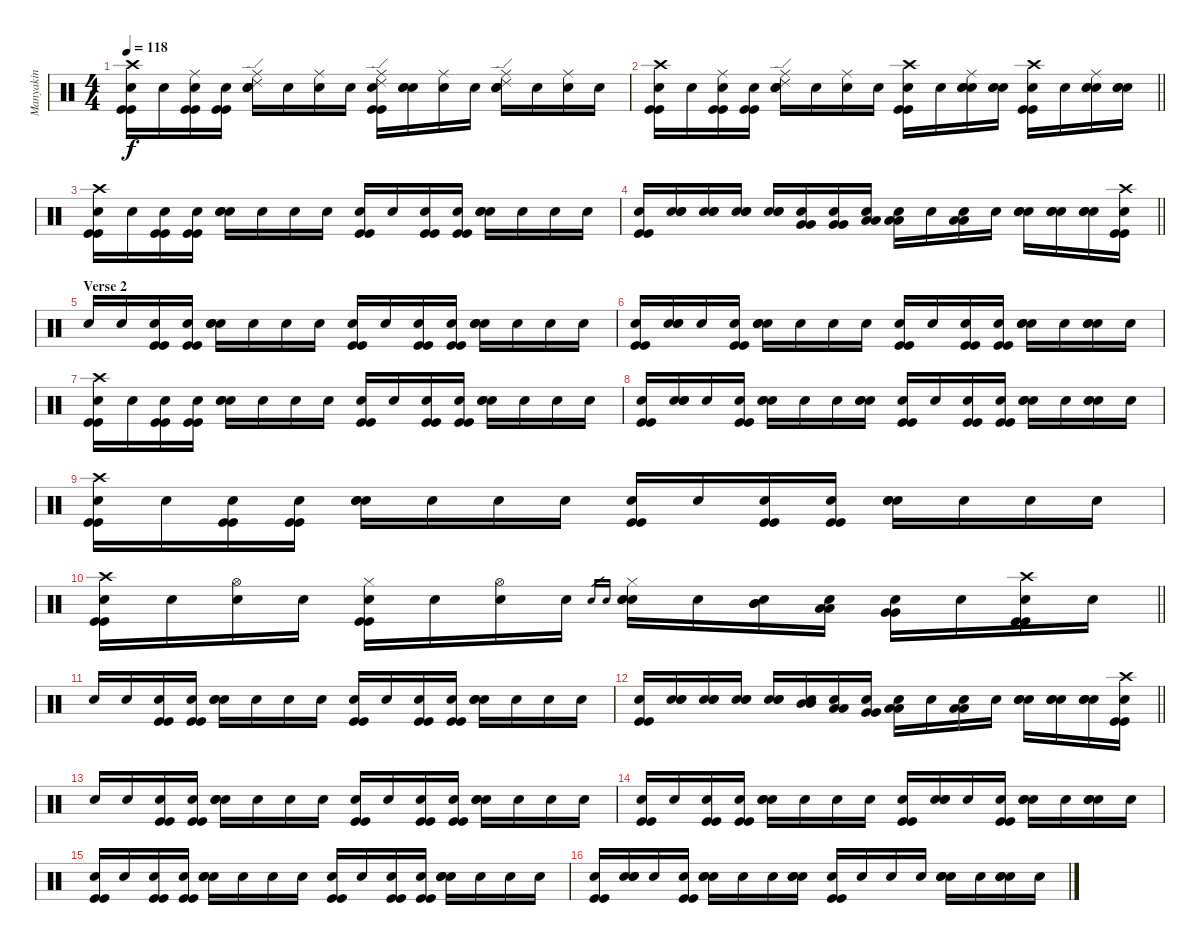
\track ("Manyakin" "Manyakin") {instrument percussion}
\staff {score}
\articulation defaults
\ts (4 4)
\tempo 118
\clef neutral
\ks c
("Crash high (hit)" "Kick (hit)" "Kick (hit)" "Snare (hit)"{x}).16{dy f} "Snare (hit)"{x}.16 ("Ride (middle)" "Kick (hit)" "Kick (hit)" "Snare (hit)"{x}).16 ("Kick (hit)" "Kick (hit)" "Snare (hit)"{x}).16 ("Ride (middle)" "Ride (edge) 2" "Electric Snare (hit)" "Electric Snare (hit)" "Snare (hit)"{x}).16 "Snare (hit)"{x}.16 ("Ride (middle)" "Snare (hit)"{x}).16 "Snare (hit)"{x}.16 ("Ride (middle)" "Ride (edge) 2" "Kick (hit)" "Kick (hit)" "Snare (hit)"{x}).16 ("Electric Snare (hit)" "Electric Snare (hit)" "Snare (hit)"{x}).16 ("Ride (middle)" "Snare (hit)"{x}).16 "Snare (hit)"{x}.16 ("Ride (middle)" "Ride (edge) 2" "Electric Snare (hit)" "Electric Snare (hit)" "Snare (hit)"{x}).16 "Snare (hit)"{x}.16 ("Ride (middle)" "Snare (hit)"{x}).16 "Snare (hit)"{x}.16 |
\barLineRight lightlight
("Crash high (hit)" "Kick (hit)" "Kick (hit)" "Snare (hit)"{x}).16 "Snare (hit)"{x}.16 ("Ride (middle)" "Kick (hit)" "Kick (hit)" "Snare (hit)"{x}).16 ("Kick (hit)" "Kick (hit)" "Snare (hit)"{x}).16 ("Ride (middle)" "Ride (edge) 2" "Electric Snare (hit)" "Electric Snare (hit)" "Snare (hit)"{x}).16 "Snare (hit)"{x}.16 ("Ride (middle)" "Snare (hit)"{x}).16 "Snare (hit)"{x}.16 ("Crash high (hit)" "Kick (hit)" "Kick (hit)" "Snare (hit)"{x}).16 "Snare (hit)"{x}.16 ("Ride (middle)" "Electric Snare (hit)" "Electric Snare (hit)" "Snare (hit)"{x}).16 ("Electric Snare (hit)" "Electric Snare (hit)" "Snare (hit)"{x}).16 ("Crash high (hit)" "Kick (hit)" "Kick (hit)" "Snare (hit)"{x}).16 "Snare (hit)"{x}.16 ("Ride (middle)" "Electric Snare (hit)" "Electric Snare (hit)" "Snare (hit)"{x}).16 ("Electric Snare (hit)" "Electric Snare (hit)" "Snare (hit)"{x}).16 |
("Crash high (hit)" "Kick (hit)" "Kick (hit)" "Snare (hit)"{x}).16 "Snare (hit)"{x}.16 ("Kick (hit)" "Kick (hit)" "Snare (hit)"{x}).16 ("Kick (hit)" "Kick (hit)" "Snare (hit)"{x}).16 ("Electric Snare (hit)" "Electric Snare (hit)" "Snare (hit)"{x}).16 "Snare (hit)"{x}.16 "Snare (hit)"{x}.16 "Snare (hit)"{x}.16 ("Kick (hit)" "Kick (hit)" "Snare (hit)"{x}).16 "Snare (hit)"{x}.16 ("Kick (hit)" "Kick (hit)" "Snare (hit)"{x}).16 ("Kick (hit)" "Kick (hit)" "Snare (hit)"{x}).16 ("Electric Snare (hit)" "Electric Snare (hit)" "Snare (hit)"{x}).16 "Snare (hit)"{x}.16 "Snare (hit)"{x}.16 "Snare (hit)"{x}.16 |
\barLineRight lightlight
("Kick (hit)" "Kick (hit)" "Snare (hit)"{x}).16 ("Electric Snare (hit)" "Electric Snare (hit)" "Snare (hit)"{x}).16 ("Electric Snare (hit)" "Electric Snare (hit)" "Snare (hit)"{x}).16 ("Electric Snare (hit)" "Electric Snare (hit)" "Snare (hit)"{x}).16 ("Electric Snare (hit)" "Electric Snare (hit)" "Snare (hit)"{x}).16 ("Very Low Tom (hit)" "Very Low Tom (hit)" "Snare (hit)"{x}).16 ("Very Low Tom (hit)" "Very Low Tom (hit)" "Snare (hit)"{x}).16 ("Low Floor Tom (hit)" "Low Floor Tom (hit)" "Snare (hit)"{x}).16 ("Low Floor Tom (hit)" "Low Floor Tom (hit)" "Snare (hit)"{x}).16 "Snare (hit)"{x}.16 ("Low Floor Tom (hit)" "Low Floor Tom (hit)" "Snare (hit)"{x}).16 "Snare (hit)"{x}.16 ("Electric Snare (hit)" "Electric Snare (hit)" "Snare (hit)"{x}).16 ("Electric Snare (hit)" "Electric Snare (hit)" "Snare (hit)"{x}).16 ("Electric Snare (hit)" "Electric Snare (hit)" "Snare (hit)"{x}).16 ("Crash high (hit)" "Kick (hit)" "Kick (hit)" "Snare (hit)"{x}).16 |
\section ("" "Verse 2")
"Snare (hit)"{x}.16 "Snare (hit)"{x}.16 ("Kick (hit)" "Kick (hit)" "Snare (hit)"{x}).16 ("Kick (hit)" "Kick (hit)" "Snare (hit)"{x}).16 ("Electric Snare (hit)" "Electric Snare (hit)" "Snare (hit)"{x}).16 "Snare (hit)"{x}.16 "Snare (hit)"{x}.16 "Snare (hit)"{x}.16 ("Kick (hit)" "Kick (hit)" "Snare (hit)"{x}).16 "Snare (hit)"{x}.16 ("Kick (hit)" "Kick (hit)" "Snare (hit)"{x}).16 ("Kick (hit)" "Kick (hit)" "Snare (hit)"{x}).16 ("Electric Snare (hit)" "Electric Snare (hit)" "Snare (hit)"{x}).16 "Snare (hit)"{x}.16 "Snare (hit)"{x}.16 "Snare (hit)"{x}.16 |
("Kick (hit)" "Kick (hit)" "Snare (hit)"{x}).16 ("Electric Snare (hit)" "Electric Snare (hit)" "Snare (hit)"{x}).16 "Snare (hit)"{x}.16 ("Kick (hit)" "Kick (hit)" "Snare (hit)"{x}).16 ("Electric Snare (hit)" "Electric Snare (hit)" "Snare (hit)"{x}).16 "Snare (hit)"{x}.16 "Snare (hit)"{x}.16 "Snare (hit)"{x}.16 ("Kick (hit)" "Kick (hit)" "Snare (hit)"{x}).16 "Snare (hit)"{x}.16 ("Kick (hit)" "Kick (hit)" "Snare (hit)"{x}).16 ("Kick (hit)" "Kick (hit)" "Snare (hit)"{x}).16 ("Electric Snare (hit)" "Electric Snare (hit)" "Snare (hit)"{x}).16 "Snare (hit)"{x}.16 ("Electric Snare (hit)" "Electric Snare (hit)" "Snare (hit)"{x}).16 "Snare (hit)"{x}.16 |
("Crash high (hit)" "Kick (hit)" "Kick (hit)" "Snare (hit)"{x}).16 "Snare (hit)"{x}.16 ("Kick (hit)" "Kick (hit)" "Snare (hit)"{x}).16 ("Kick (hit)" "Kick (hit)" "Snare (hit)"{x}).16 ("Electric Snare (hit)" "Electric Snare (hit)" "Snare (hit)"{x}).16 "Snare (hit)"{x}.16 "Snare (hit)"{x}.16 "Snare (hit)"{x}.16 ("Kick (hit)" "Kick (hit)" "Snare (hit)"{x}).16 "Snare (hit)"{x}.16 ("Kick (hit)" "Kick (hit)" "Snare (hit)"{x}).16 ("Kick (hit)" "Kick (hit)" "Snare (hit)"{x}).16 ("Electric Snare (hit)" "Electric Snare (hit)" "Snare (hit)"{x}).16 "Snare (hit)"{x}.16 "Snare (hit)"{x}.16 "Snare (hit)"{x}.16 |
("Kick (hit)" "Kick (hit)" "Snare (hit)"{x}).16 ("Electric Snare (hit)" "Electric Snare (hit)" "Snare (hit)"{x}).16 "Snare (hit)"{x}.16 ("Kick (hit)" "Kick (hit)" "Snare (hit)"{x}).16 ("Electric Snare (hit)" "Electric Snare (hit)" "Snare (hit)"{x}).16 "Snare (hit)"{x}.16 "Snare (hit)"{x}.16 ("Electric Snare (hit)" "Electric Snare (hit)" "Snare (hit)"{x}).16 ("Kick (hit)" "Kick (hit)" "Snare (hit)"{x}).16 "Snare (hit)"{x}.16 ("Kick (hit)" "Kick (hit)" "Snare (hit)"{x}).16 ("Kick (hit)" "Kick (hit)" "Snare (hit)"{x}).16 ("Electric Snare (hit)" "Electric Snare (hit)" "Snare (hit)"{x}).16 "Snare (hit)"{x}.16 ("Electric Snare (hit)" "Electric Snare (hit)" "Snare (hit)"{x}).16 "Snare (hit)"{x}.16 |
("Crash high (hit)" "Kick (hit)" "Kick (hit)" "Snare (hit)"{x}).16 "Snare (hit)"{x}.16 ("Kick (hit)" "Kick (hit)" "Snare (hit)"{x}).16 ("Kick (hit)" "Kick (hit)" "Snare (hit)"{x}).16 ("Electric Snare (hit)" "Electric Snare (hit)" "Snare (hit)"{x}).16 "Snare (hit)"{x}.16 "Snare (hit)"{x}.16 "Snare (hit)"{x}.16 ("Kick (hit)" "Kick (hit)" "Snare (hit)"{x}).16 "Snare (hit)"{x}.16 ("Kick (hit)" "Kick (hit)" "Snare (hit)"{x}).16 ("Kick (hit)" "Kick (hit)" "Snare (hit)"{x}).16 ("Electric Snare (hit)" "Electric Snare (hit)" "Snare (hit)"{x}).16 "Snare (hit)"{x}.16 "Snare (hit)"{x}.16 "Snare (hit)"{x}.16 |
\barLineRight lightlight
("Crash high (hit)" "Kick (hit)" "Kick (hit)" "Snare (hit)"{x}).16 "Snare (hit)"{x}.16 ("Hi-Hat (open)" "Snare (hit)"{x}).16 "Snare (hit)"{x}.16 ("Hi-Hat (closed)" "Kick (hit)" "Kick (hit)" "Snare (hit)"{x}).16 "Snare (hit)"{x}.16 ("Hi-Hat (open)" "Snare (hit)"{x}).16 "Snare (hit)"{x}.16 "Electric Snare (hit)".16{gr} "Electric Snare (hit)".16{gr} ("Hi-Hat (closed)" "Electric Snare (hit)" "Electric Snare (hit)" "Snare (hit)"{x}).16 "Snare (hit)"{x}.16 ("Mid Tom (hit)" "Mid Tom (hit)" "Snare (hit)"{x}).16 ("Low Tom (hit)" "Low Tom (hit)" "Snare (hit)"{x}).16 ("Very Low Tom (hit)" "Very Low Tom (hit)" "Snare (hit)"{x}).16 "Snare (hit)"{x}.16 ("Crash high (hit)" "Kick (hit)" "Kick (hit)" "Snare (hit)"{x}).16 "Snare (hit)"{x}.16 |
"Snare (hit)"{x}.16 "Snare (hit)"{x}.16 ("Kick (hit)" "Kick (hit)" "Snare (hit)"{x}).16 ("Kick (hit)" "Kick (hit)" "Snare (hit)"{x}).16 ("Electric Snare (hit)" "Electric Snare (hit)" "Snare (hit)"{x}).16 "Snare (hit)"{x}.16 "Snare (hit)"{x}.16 "Snare (hit)"{x}.16 ("Kick (hit)" "Kick (hit)" "Snare (hit)"{x}).16 "Snare (hit)"{x}.16 ("Kick (hit)" "Kick (hit)" "Snare (hit)"{x}).16 ("Kick (hit)" "Kick (hit)" "Snare (hit)"{x}).16 ("Electric Snare (hit)" "Electric Snare (hit)" "Snare (hit)"{x}).16 "Snare (hit)"{x}.16 "Snare (hit)"{x}.16 "Snare (hit)"{x}.16 |
\barLineRight lightlight
("Kick (hit)" "Kick (hit)" "Snare (hit)"{x}).16 ("Electric Snare (hit)" "Electric Snare (hit)" "Snare (hit)"{x}).16 ("Electric Snare (hit)" "Electric Snare (hit)" "Snare (hit)"{x}).16 ("Electric Snare (hit)" "Electric Snare (hit)" "Snare (hit)"{x}).16 ("Electric Snare (hit)" "Electric Snare (hit)" "Snare (hit)"{x}).16 ("Mid Tom (hit)" "Mid Tom (hit)" "Snare (hit)"{x}).16 ("Low Tom (hit)" "Low Tom (hit)" "Snare (hit)"{x}).16 ("Very Low Tom (hit)" "Very Low Tom (hit)" "Snare (hit)"{x}).16 ("Low Floor Tom (hit)" "Low Floor Tom (hit)" "Snare (hit)"{x}).16 "Snare (hit)"{x}.16 ("Low Floor Tom (hit)" "Low Floor Tom (hit)" "Snare (hit)"{x}).16 "Snare (hit)"{x}.16 ("Electric Snare (hit)" "Electric Snare (hit)" "Snare (hit)"{x}).16 ("Electric Snare (hit)" "Electric Snare (hit)" "Snare (hit)"{x}).16 ("Electric Snare (hit)" "Electric Snare (hit)" "Snare (hit)"{x}).16 ("Crash high (hit)" "Kick (hit)" "Kick (hit)" "Snare (hit)"{x}).16 |
"Snare (hit)"{x}.16 "Snare (hit)"{x}.16 ("Kick (hit)" "Kick (hit)" "Snare (hit)"{x}).16 ("Kick (hit)" "Kick (hit)" "Snare (hit)"{x}).16 ("Electric Snare (hit)" "Electric Snare (hit)" "Snare (hit)"{x}).16 "Snare (hit)"{x}.16 "Snare (hit)"{x}.16 "Snare (hit)"{x}.16 ("Kick (hit)" "Kick (hit)" "Snare (hit)"{x}).16 "Snare (hit)"{x}.16 ("Kick (hit)" "Kick (hit)" "Snare (hit)"{x}).16 ("Kick (hit)" "Kick (hit)" "Snare (hit)"{x}).16 ("Electric Snare (hit)" "Electric Snare (hit)" "Snare (hit)"{x}).16 "Snare (hit)"{x}.16 "Snare (hit)"{x}.16 "Snare (hit)"{x}.16 |
("Kick (hit)" "Kick (hit)" "Snare (hit)"{x}).16 "Snare (hit)"{x}.16 ("Kick (hit)" "Kick (hit)" "Snare (hit)"{x}).16 ("Kick (hit)" "Kick (hit)" "Snare (hit)"{x}).16 ("Electric Snare (hit)" "Electric Snare (hit)" "Snare (hit)"{x}).16 "Snare (hit)"{x}.16 "Snare (hit)"{x}.16 "Snare (hit)"{x}.16 ("Kick (hit)" "Kick (hit)" "Snare (hit)"{x}).16 ("Electric Snare (hit)" "Electric Snare (hit)" "Snare (hit)"{x}).16 "Snare (hit)"{x}.16 ("Kick (hit)" "Kick (hit)" "Snare (hit)"{x}).16 ("Electric Snare (hit)" "Electric Snare (hit)" "Snare (hit)"{x}).16 "Snare (hit)"{x}.16 ("Electric Snare (hit)" "Electric Snare (hit)" "Snare (hit)"{x}).16 "Snare (hit)"{x}.16 |
("Kick (hit)" "Kick (hit)" "Snare (hit)"{x}).16 "Snare (hit)"{x}.16 ("Kick (hit)" "Kick (hit)" "Snare (hit)"{x}).16 ("Kick (hit)" "Kick (hit)" "Snare (hit)"{x}).16 ("Electric Snare (hit)" "Electric Snare (hit)" "Snare (hit)"{x}).16 "Snare (hit)"{x}.16 "Snare (hit)"{x}.16 "Snare (hit)"{x}.16 ("Kick (hit)" "Kick (hit)" "Snare (hit)"{x}).16 "Snare (hit)"{x}.16 ("Kick (hit)" "Kick (hit)" "Snare (hit)"{x}).16 ("Kick (hit)" "Kick (hit)" "Snare (hit)"{x}).16 ("Electric Snare (hit)" "Electric Snare (hit)" "Snare (hit)"{x}).16 "Snare (hit)"{x}.16 "Snare (hit)"{x}.16 "Snare (hit)"{x}.16 |
("Kick (hit)" "Kick (hit)" "Snare (hit)"{x}).16 ("Electric Snare (hit)" "Electric Snare (hit)" "Snare (hit)"{x}).16 "Snare (hit)"{x}.16 ("Kick (hit)" "Kick (hit)" "Snare (hit)"{x}).16 ("Electric Snare (hit)" "Electric Snare (hit)" "Snare (hit)"{x}).16 "Snare (hit)"{x}.16 "Snare (hit)"{x}.16 ("Electric Snare (hit)" "Electric Snare (hit)" "Snare (hit)"{x}).16 ("Kick (hit)" "Kick (hit)" "Snare (hit)"{x}).16 "Snare (hit)"{x}.16 "Snare (hit)"{x}.16 "Snare (hit)"{x}.16 ("Electric Snare (hit)" "Electric Snare (hit)" "Snare (hit)"{x}).16 "Snare (hit)"{x}.16 ("Electric Snare (hit)" "Electric Snare (hit)" "Snare (hit)"{x}).16 "Snare (hit)"{x}.16
